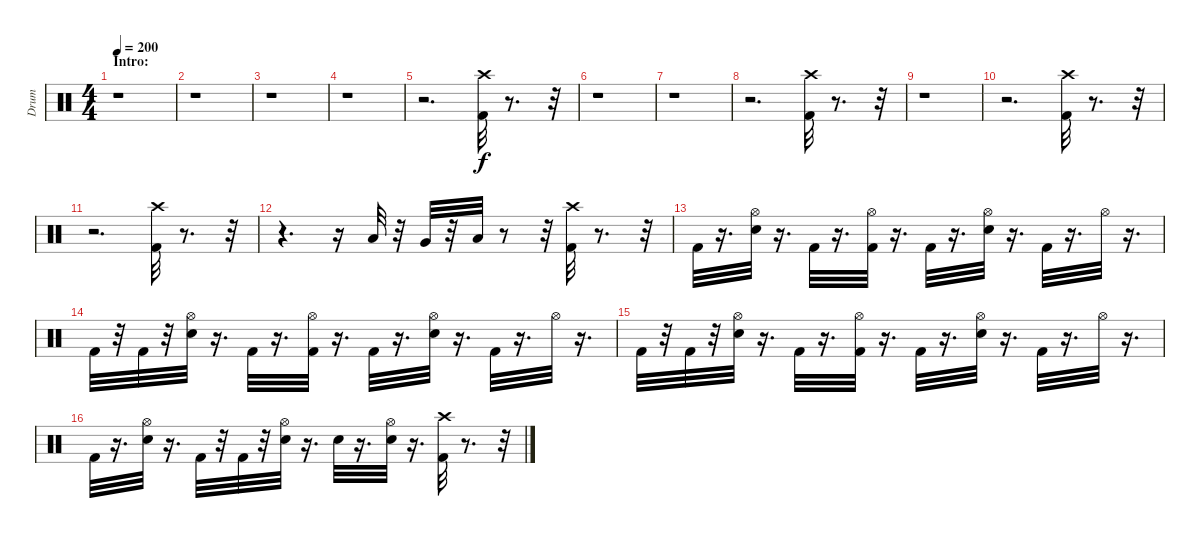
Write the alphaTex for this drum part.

\track ("Drum" "Drum") {instrument percussion}
\staff {score}
\articulation defaults
\ts (4 4)
\section ("" "Intro:")
\tempo 200
\clef neutral
\ks c
r.1{dy f} |
r.1 |
r.1 |
r.1 |
r.2{d} ("Crash high (hit)" "Kick (hit) 2").32 r.8{d} r.32 |
r.1 |
r.1 |
r.2{d} ("Crash high (hit)" "Kick (hit) 2").32 r.8{d} r.32 |
r.1 |
r.2{d} ("Crash high (hit)" "Kick (hit) 2").32 r.8{d} r.32 |
r.2{d} ("Crash high (hit)" "Kick (hit) 2").32 r.8{d} r.32 |
r.4{d} r.16 "Low Tom (hit)".32 r.32 "Very Low Tom (hit)".32 r.32 "Low Floor Tom (hit)".32 r.8 r.32 ("Kick (hit) 2" "Crash high (hit)").32 r.8{d} r.32 |
"Kick (hit) 2".32 r.16{d} ("Hi-Hat (open)" "Snare (hit) 2").32 r.16{d} "Kick (hit) 2".32 r.16{d} ("Hi-Hat (open)" "Kick (hit) 2").32 r.16{d} "Kick (hit) 2".32 r.16{d} ("Hi-Hat (open)" "Snare (hit) 2").32 r.16{d} "Kick (hit) 2".32 r.16{d} "Hi-Hat (open)".32 r.16{d} |
"Kick (hit) 2".32 r.32 "Kick (hit) 2".32 r.32 ("Hi-Hat (open)" "Snare (hit) 2").32 r.16{d} "Kick (hit) 2".32 r.16{d} ("Kick (hit) 2" "Hi-Hat (open)").32 r.16{d} "Kick (hit) 2".32 r.16{d} ("Hi-Hat (open)" "Snare (hit) 2").32 r.16{d} "Kick (hit) 2".32 r.16{d} "Hi-Hat (open)".32 r.16{d} |
"Kick (hit) 2".32 r.32 "Kick (hit) 2".32 r.32 ("Snare (hit) 2" "Hi-Hat (open)").32 r.16{d} "Kick (hit) 2".32 r.16{d} ("Kick (hit) 2" "Hi-Hat (open)").32 r.16{d} "Kick (hit) 2".32 r.16{d} ("Snare (hit) 2" "Hi-Hat (open)").32 r.16{d} "Kick (hit) 2".32 r.16{d} "Hi-Hat (open)".32 r.16{d} |
"Kick (hit) 2".32 r.16{d} ("Snare (hit) 2" "Hi-Hat (open)").32 r.16{d} "Kick (hit) 2".32 r.32 "Kick (hit) 2".32 r.32 ("Snare (hit) 2" "Hi-Hat (open)").32 r.16{d} "Snare (hit) 2".32 r.16{d} ("Snare (hit) 2" "Hi-Hat (open)").32 r.16{d} ("Crash high (hit)" "Kick (hit) 2").32 r.8{d} r.32
